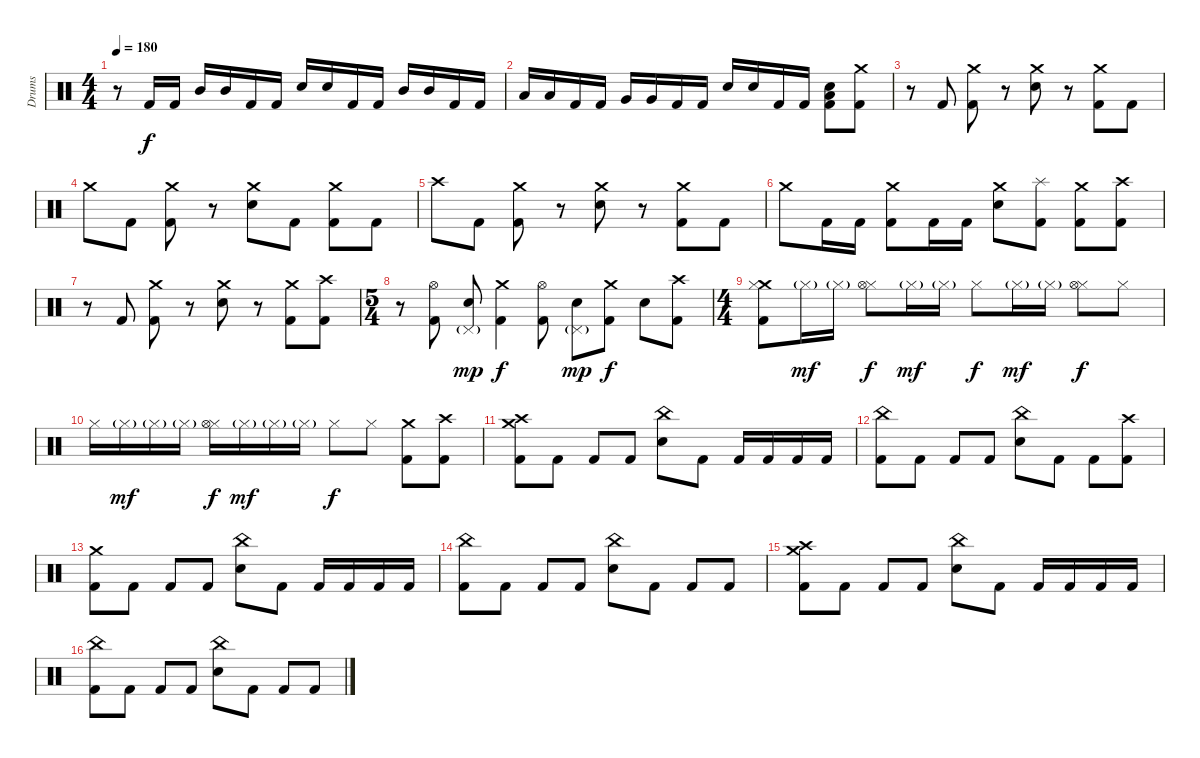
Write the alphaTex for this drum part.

\track ("Drums" "Drums") {instrument percussion}
\staff {score}
\articulation defaults
\ts (4 4)
\tempo 180
\clef neutral
\ks c
r.8{dy f} "Kick (hit) 2".16 "Kick (hit) 2".16 "Mid Tom (hit)".16 "Mid Tom (hit)".16 "Kick (hit) 2".16 "Kick (hit) 2".16 "Electric Snare (hit)".16 "Electric Snare (hit)".16 "Kick (hit) 2".16 "Kick (hit) 2".16 "Mid Tom (hit)".16 "Mid Tom (hit)".16 "Kick (hit) 2".16 "Kick (hit) 2".16 |
"Low Tom (hit)".16 "Low Tom (hit)".16 "Kick (hit) 2".16 "Kick (hit) 2".16 "Very Low Tom (hit)".16 "Very Low Tom (hit)".16 "Kick (hit) 2".16 "Kick (hit) 2".16 "Electric Snare (hit)".16 "Electric Snare (hit)".16 "Kick (hit) 2".16 "Kick (hit) 2".16 ("Low Floor Tom (hit)" "Electric Snare (hit)" "Kick (hit) 2").8 ("Crash medium (hit)" "Kick (hit) 2").8 |
r.8 "Kick (hit) 2".8 ("Crash medium (hit)" "Kick (hit) 2").8 r.8 ("Crash medium (hit)" "Electric Snare (hit)").8 r.8 ("Crash medium (hit)" "Kick (hit) 2").8 "Kick (hit) 2".8 |
"Crash medium (hit)".8 "Kick (hit) 2".8 ("Crash medium (hit)" "Kick (hit) 2").8 r.8 ("Crash medium (hit)" "Electric Snare (hit)").8 "Kick (hit) 2".8 ("Crash medium (hit)" "Kick (hit) 2").8 "Kick (hit) 2".8 |
"Crash high (hit)".8 "Kick (hit) 2".8 ("Crash medium (hit)" "Kick (hit) 2").8 r.8 ("Crash medium (hit)" "Electric Snare (hit)").8 r.8 ("Crash medium (hit)" "Kick (hit) 2").8 "Kick (hit) 2".8 |
"Crash medium (hit)".8 "Kick (hit) 2".16 "Kick (hit) 2".16 ("Crash medium (hit)" "Kick (hit) 2").8 "Kick (hit) 2".16 "Kick (hit) 2".16 ("Crash medium (hit)" "Electric Snare (hit)").8 ("Splash (hit)" "Kick (hit) 2").8 ("Crash medium (hit)" "Kick (hit) 2").8 ("Crash high (hit)" "Kick (hit) 2").8 |
r.8 "Kick (hit) 2".8 ("Crash medium (hit)" "Kick (hit) 2").8 r.8 ("Crash medium (hit)" "Electric Snare (hit)").8 r.8 ("Crash medium (hit)" "Kick (hit) 2").8 ("Crash high (hit)" "Kick (hit) 2").8 |
\ts (5 4)
r.8 ("Hi-Hat (open)" "Kick (hit) 2").8 ("Pedal Hi-Hat (hit)"{g} "Electric Snare (hit)").8{dy mp} ("Crash medium (hit)" "Kick (hit) 2").4{dy f} ("Hi-Hat (open)" "Kick (hit) 2").8 ("Pedal Hi-Hat (hit)"{g} "Electric Snare (hit)").8{dy mp} ("Crash medium (hit)" "Kick (hit) 2").8{dy f} "Electric Snare (hit)".8 ("Crash high (hit)" "Kick (hit) 2").8 |
\ts (4 4)
("Crash medium (hit)" "Hi-Hat (closed)" "Kick (hit) 2").8 "Hi-Hat (closed)"{g}.16{dy mf} "Hi-Hat (closed)"{g}.16 ("Hi-Hat (closed)" "Hi-Hat (open)").8{dy f} "Hi-Hat (closed)"{g}.16{dy mf} "Hi-Hat (closed)"{g}.16 "Hi-Hat (closed)".8{dy f} "Hi-Hat (closed)"{g}.16{dy mf} "Hi-Hat (closed)"{g}.16 ("Hi-Hat (closed)" "Hi-Hat (open)").8{dy f} "Hi-Hat (closed)".8 |
"Hi-Hat (closed)".16 "Hi-Hat (closed)"{g}.16{dy mf} "Hi-Hat (closed)"{g}.16 "Hi-Hat (closed)"{g}.16 ("Hi-Hat (closed)" "Hi-Hat (open)").16{dy f} "Hi-Hat (closed)"{g}.16{dy mf} "Hi-Hat (closed)"{g}.16 "Hi-Hat (closed)"{g}.16 "Hi-Hat (closed)".8{dy f} "Hi-Hat (closed)".8 ("Crash medium (hit)" "Kick (hit) 2").8 ("Crash high (hit)" "Kick (hit) 2").8 |
("Crash medium (hit)" "Crash high (hit)" "Kick (hit) 2").8 "Kick (hit) 2".8 "Kick (hit) 2".8 "Kick (hit) 2".8 ("China (hit)" "Electric Snare (hit)").8 "Kick (hit) 2".8 "Kick (hit) 2".16 "Kick (hit) 2".16 "Kick (hit) 2".16 "Kick (hit) 2".16 |
("China (hit)" "Kick (hit) 2").8 "Kick (hit) 2".8 "Kick (hit) 2".8 "Kick (hit) 2".8 ("China (hit)" "Electric Snare (hit)").8 "Kick (hit) 2".8 "Kick (hit) 2".8 ("Crash high (hit)" "Kick (hit) 2").8 |
("Crash medium (hit)" "Kick (hit) 2").8 "Kick (hit) 2".8 "Kick (hit) 2".8 "Kick (hit) 2".8 ("China (hit)" "Electric Snare (hit)").8 "Kick (hit) 2".8 "Kick (hit) 2".16 "Kick (hit) 2".16 "Kick (hit) 2".16 "Kick (hit) 2".16 |
("China (hit)" "Kick (hit) 2").8 "Kick (hit) 2".8 "Kick (hit) 2".8 "Kick (hit) 2".8 ("China (hit)" "Electric Snare (hit)").8 "Kick (hit) 2".8 "Kick (hit) 2".8 "Kick (hit) 2".8 |
("Crash medium (hit)" "Crash high (hit)" "Kick (hit) 2").8 "Kick (hit) 2".8 "Kick (hit) 2".8 "Kick (hit) 2".8 ("China (hit)" "Electric Snare (hit)").8 "Kick (hit) 2".8 "Kick (hit) 2".16 "Kick (hit) 2".16 "Kick (hit) 2".16 "Kick (hit) 2".16 |
("China (hit)" "Kick (hit) 2").8 "Kick (hit) 2".8 "Kick (hit) 2".8 "Kick (hit) 2".8 ("China (hit)" "Electric Snare (hit)").8 "Kick (hit) 2".8 "Kick (hit) 2".8 "Kick (hit) 2".8
